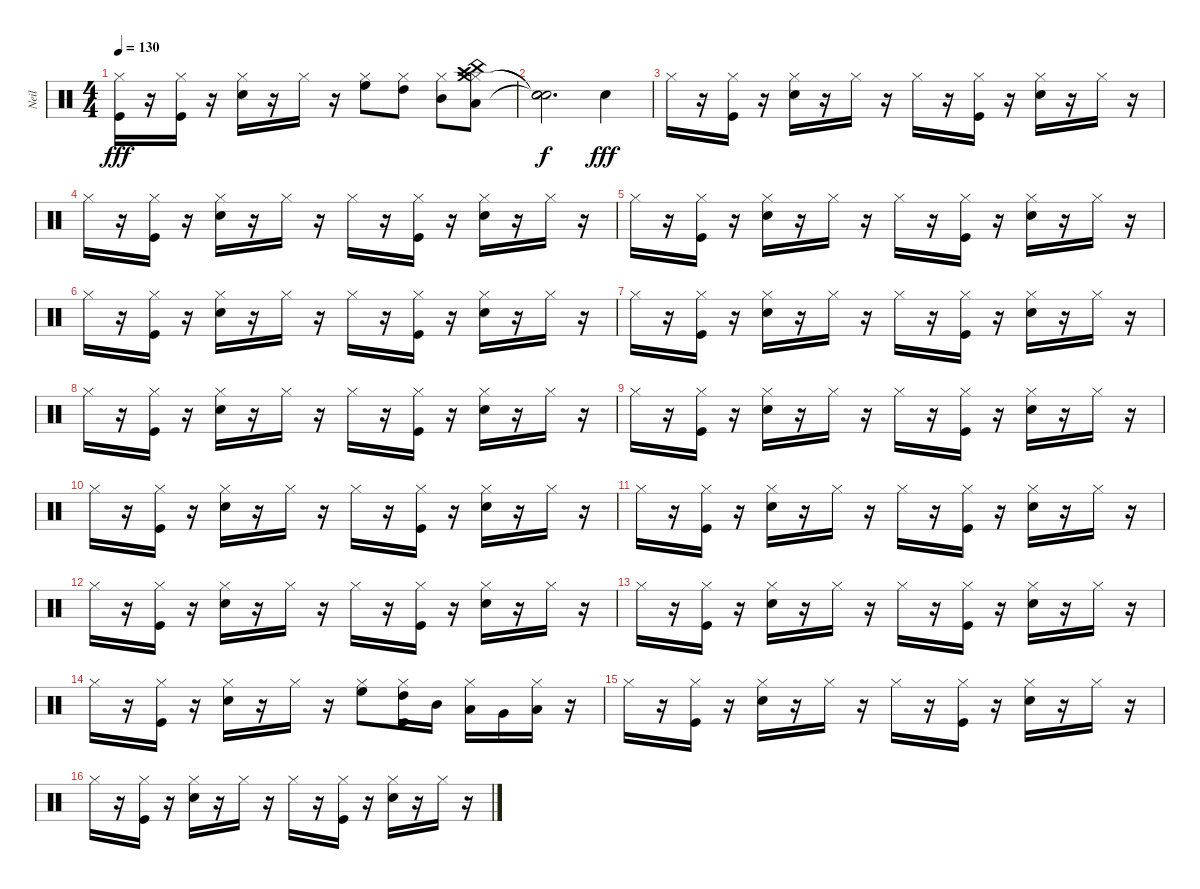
\track ("Neil" "Neil") {instrument percussion}
\staff {score}
\articulation defaults
\ts (4 4)
\tempo 130
\clef neutral
\ks c
("Hi-Hat (closed)" "Kick (hit)").16{dy fff} r.16 ("Kick (hit)" "Hi-Hat (closed)").16 r.16 ("Hi-Hat (closed)" "Electric Snare (hit)").16 r.16 "Hi-Hat (closed)".16 r.16 ("Hi-Hat (closed)" "High Floor Tom (hit)").8 ("Hi-Hat (closed)" "High Tom (hit)").8 ("Hi-Hat (closed)" "Mid Tom (hit)").8 ("Low Tom (hit)" "Hi-Hat (closed)" "Crash medium (hit)" "China (hit)" "Crash high (hit)").8 |
("Snare (hit)"{t} "Snare (hit)"{t} "Snare (hit)"{t}).2{d dy f} "Snare (hit) 2".4{dy fff} |
"Hi-Hat (closed)".16 r.16 ("Hi-Hat (closed)" "Kick (hit)").16 r.16 ("Hi-Hat (closed)" "Electric Snare (hit)").16 r.16 "Hi-Hat (closed)".16 r.16 "Hi-Hat (closed)".16 r.16 ("Kick (hit)" "Hi-Hat (closed)").16 r.16 ("Electric Snare (hit)" "Hi-Hat (closed)").16 r.16 "Hi-Hat (closed)".16 r.16 |
"Hi-Hat (closed)".16 r.16 ("Hi-Hat (closed)" "Kick (hit)").16 r.16 ("Hi-Hat (closed)" "Electric Snare (hit)").16 r.16 "Hi-Hat (closed)".16 r.16 "Hi-Hat (closed)".16 r.16 ("Kick (hit)" "Hi-Hat (closed)").16 r.16 ("Electric Snare (hit)" "Hi-Hat (closed)").16 r.16 "Hi-Hat (closed)".16 r.16 |
"Hi-Hat (closed)".16 r.16 ("Hi-Hat (closed)" "Kick (hit)").16 r.16 ("Hi-Hat (closed)" "Electric Snare (hit)").16 r.16 "Hi-Hat (closed)".16 r.16 "Hi-Hat (closed)".16 r.16 ("Kick (hit)" "Hi-Hat (closed)").16 r.16 ("Electric Snare (hit)" "Hi-Hat (closed)").16 r.16 "Hi-Hat (closed)".16 r.16 |
"Hi-Hat (closed)".16 r.16 ("Hi-Hat (closed)" "Kick (hit)").16 r.16 ("Hi-Hat (closed)" "Electric Snare (hit)").16 r.16 "Hi-Hat (closed)".16 r.16 "Hi-Hat (closed)".16 r.16 ("Kick (hit)" "Hi-Hat (closed)").16 r.16 ("Electric Snare (hit)" "Hi-Hat (closed)").16 r.16 "Hi-Hat (closed)".16 r.16 |
"Hi-Hat (closed)".16 r.16 ("Hi-Hat (closed)" "Kick (hit)").16 r.16 ("Hi-Hat (closed)" "Electric Snare (hit)").16 r.16 "Hi-Hat (closed)".16 r.16 "Hi-Hat (closed)".16 r.16 ("Kick (hit)" "Hi-Hat (closed)").16 r.16 ("Electric Snare (hit)" "Hi-Hat (closed)").16 r.16 "Hi-Hat (closed)".16 r.16 |
"Hi-Hat (closed)".16 r.16 ("Hi-Hat (closed)" "Kick (hit)").16 r.16 ("Hi-Hat (closed)" "Electric Snare (hit)").16 r.16 "Hi-Hat (closed)".16 r.16 "Hi-Hat (closed)".16 r.16 ("Kick (hit)" "Hi-Hat (closed)").16 r.16 ("Electric Snare (hit)" "Hi-Hat (closed)").16 r.16 "Hi-Hat (closed)".16 r.16 |
"Hi-Hat (closed)".16 r.16 ("Kick (hit)" "Hi-Hat (closed)").16 r.16 ("Hi-Hat (closed)" "Electric Snare (hit)").16 r.16 "Hi-Hat (closed)".16 r.16 "Hi-Hat (closed)".16 r.16 ("Hi-Hat (closed)" "Kick (hit)").16 r.16 ("Hi-Hat (closed)" "Electric Snare (hit)").16 r.16 "Hi-Hat (closed)".16 r.16 |
"Hi-Hat (closed)".16 r.16 ("Kick (hit)" "Hi-Hat (closed)").16 r.16 ("Hi-Hat (closed)" "Electric Snare (hit)").16 r.16 "Hi-Hat (closed)".16 r.16 "Hi-Hat (closed)".16 r.16 ("Hi-Hat (closed)" "Kick (hit)").16 r.16 ("Hi-Hat (closed)" "Electric Snare (hit)").16 r.16 "Hi-Hat (closed)".16 r.16 |
"Hi-Hat (closed)".16 r.16 ("Kick (hit)" "Hi-Hat (closed)").16 r.16 ("Hi-Hat (closed)" "Electric Snare (hit)").16 r.16 "Hi-Hat (closed)".16 r.16 "Hi-Hat (closed)".16 r.16 ("Hi-Hat (closed)" "Kick (hit)").16 r.16 ("Hi-Hat (closed)" "Electric Snare (hit)").16 r.16 "Hi-Hat (closed)".16 r.16 |
"Hi-Hat (closed)".16 r.16 ("Kick (hit)" "Hi-Hat (closed)").16 r.16 ("Hi-Hat (closed)" "Electric Snare (hit)").16 r.16 "Hi-Hat (closed)".16 r.16 "Hi-Hat (closed)".16 r.16 ("Hi-Hat (closed)" "Kick (hit)").16 r.16 ("Hi-Hat (closed)" "Electric Snare (hit)").16 r.16 "Hi-Hat (closed)".16 r.16 |
"Hi-Hat (closed)".16 r.16 ("Kick (hit)" "Hi-Hat (closed)").16 r.16 ("Hi-Hat (closed)" "Electric Snare (hit)").16 r.16 "Hi-Hat (closed)".16 r.16 "Hi-Hat (closed)".16 r.16 ("Hi-Hat (closed)" "Kick (hit)").16 r.16 ("Hi-Hat (closed)" "Electric Snare (hit)").16 r.16 "Hi-Hat (closed)".16 r.16 |
"Hi-Hat (closed)".16 r.16 ("Kick (hit)" "Hi-Hat (closed)").16 r.16 ("Hi-Hat (closed)" "Electric Snare (hit)").16 r.16 "Hi-Hat (closed)".16 r.16 ("Hi-Hat (closed)" "High Floor Tom (hit)").8 ("Hi-Hat (closed)" "High Tom (hit)" "Kick (hit)").16 "Mid Tom (hit)".16 ("Hi-Hat (closed)" "Low Tom (hit)").16 "Very Low Tom (hit)".16 ("Hi-Hat (closed)" "Low Floor Tom (hit)").16 r.16 |
"Hi-Hat (closed)".16 r.16 ("Hi-Hat (closed)" "Kick (hit)").16 r.16 ("Hi-Hat (closed)" "Electric Snare (hit)").16 r.16 "Hi-Hat (closed)".16 r.16 "Hi-Hat (closed)".16 r.16 ("Kick (hit)" "Hi-Hat (closed)").16 r.16 ("Electric Snare (hit)" "Hi-Hat (closed)").16 r.16 "Hi-Hat (closed)".16 r.16 |
"Hi-Hat (closed)".16 r.16 ("Hi-Hat (closed)" "Kick (hit)").16 r.16 ("Hi-Hat (closed)" "Electric Snare (hit)").16 r.16 "Hi-Hat (closed)".16 r.16 "Hi-Hat (closed)".16 r.16 ("Kick (hit)" "Hi-Hat (closed)").16 r.16 ("Electric Snare (hit)" "Hi-Hat (closed)").16 r.16 "Hi-Hat (closed)".16 r.16
